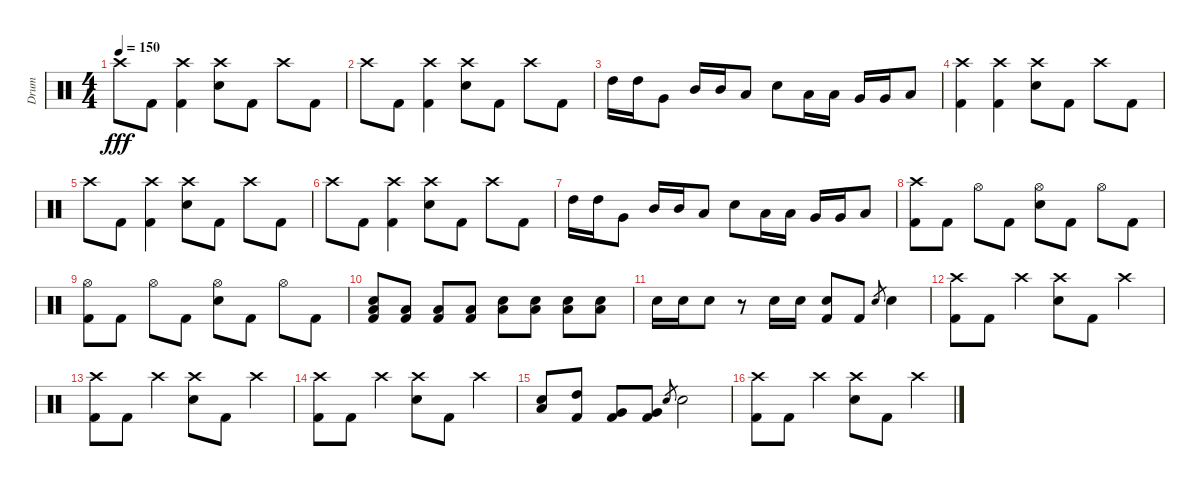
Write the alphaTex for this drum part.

\track ("Drum" "Drum") {instrument percussion}
\staff {score}
\articulation defaults
\ts (4 4)
\tempo 150
\clef neutral
\ks c "Crash high (hit)".8{dy fff} "Kick (hit) 2".8
("Crash high (hit)" "Kick (hit) 2").4 ("Crash high (hit)" "Electric Snare (hit)").8 "Kick (hit) 2".8 "Crash high (hit)".8 "Kick (hit) 2".8 |
"Crash high (hit)".8 "Kick (hit) 2".8 ("Crash high (hit)" "Kick (hit) 2").4 ("Crash high (hit)" "Electric Snare (hit)").8 "Kick (hit) 2".8 "Crash high (hit)".8 "Kick (hit) 2".8 |
"High Tom (hit)".16 "High Tom (hit)".16 "Very Low Tom (hit)".8 "Mid Tom (hit)".16 "Mid Tom (hit)".16 "Low Tom (hit)".8 "Electric Snare (hit)".8 "Low Tom (hit)".16 "Low Tom (hit)".16 "Very Low Tom (hit)".16 "Very Low Tom (hit)".16 "Low Floor Tom (hit)".8 |
("Crash high (hit)" "Kick (hit) 2").4 ("Crash high (hit)" "Kick (hit) 2").4 ("Crash high (hit)" "Electric Snare (hit)").8 "Kick (hit) 2".8 "Crash high (hit)".8 "Kick (hit) 2".8 |
"Crash high (hit)".8 "Kick (hit) 2".8 ("Crash high (hit)" "Kick (hit) 2").4 ("Crash high (hit)" "Electric Snare (hit)").8 "Kick (hit) 2".8 "Crash high (hit)".8 "Kick (hit) 2".8 |
"Crash high (hit)".8 "Kick (hit) 2".8 ("Crash high (hit)" "Kick (hit) 2").4 ("Crash high (hit)" "Electric Snare (hit)").8 "Kick (hit) 2".8 "Crash high (hit)".8 "Kick (hit) 2".8 |
"High Tom (hit)".16 "High Tom (hit)".16 "Very Low Tom (hit)".8 "Mid Tom (hit)".16 "Mid Tom (hit)".16 "Low Tom (hit)".8 "Electric Snare (hit)".8 "Low Tom (hit)".16 "Low Tom (hit)".16 "Very Low Tom (hit)".16 "Very Low Tom (hit)".16 "Low Floor Tom (hit)".8 |
("Crash high (hit)" "Kick (hit) 2").8 "Kick (hit) 2".8 "Hi-Hat (open)".8 "Kick (hit) 2".8 ("Hi-Hat (open)" "Electric Snare (hit)").8 "Kick (hit) 2".8 "Hi-Hat (open)".8 "Kick (hit) 2".8 |
("Hi-Hat (open)" "Kick (hit) 2").8 "Kick (hit) 2".8 "Hi-Hat (open)".8 "Kick (hit) 2".8 ("Hi-Hat (open)" "Electric Snare (hit)").8 "Kick (hit) 2".8 "Hi-Hat (open)".8 "Kick (hit) 2".8 |
("Electric Snare (hit)" "Low Floor Tom (hit)" "Kick (hit) 2").8 ("Low Floor Tom (hit)" "Kick (hit) 2").8 ("Low Floor Tom (hit)" "Kick (hit) 2").8 ("Low Floor Tom (hit)" "Kick (hit) 2").8 ("Electric Snare (hit)" "Low Floor Tom (hit)").8 ("Electric Snare (hit)" "Low Floor Tom (hit)").8 ("Electric Snare (hit)" "Low Floor Tom (hit)").8 ("Electric Snare (hit)" "Low Floor Tom (hit)").8 |
"Electric Snare (hit)".16 "Electric Snare (hit)".16 "Electric Snare (hit)".8 r.8 "Electric Snare (hit)".16 "Electric Snare (hit)".16 ("Electric Snare (hit)" "Kick (hit) 2").8 "Kick (hit) 2".8 "Electric Snare (hit)".8{gr} "Electric Snare (hit)".4 |
("Crash high (hit)" "Kick (hit) 2").8 "Kick (hit) 2".8 "Crash high (hit)".4 ("Crash high (hit)" "Electric Snare (hit)").8 "Kick (hit) 2".8 "Crash high (hit)".4 |
("Crash high (hit)" "Kick (hit) 2").8 "Kick (hit) 2".8 "Crash high (hit)".4 ("Crash high (hit)" "Electric Snare (hit)").8 "Kick (hit) 2".8 "Crash high (hit)".4 |
("Crash high (hit)" "Kick (hit) 2").8 "Kick (hit) 2".8 "Crash high (hit)".4 ("Crash high (hit)" "Electric Snare (hit)").8 "Kick (hit) 2".8 "Crash high (hit)".4 |
("Electric Snare (hit)" "Low Floor Tom (hit)").8 ("High Tom (hit)" "Kick (hit) 2").8 ("Very Low Tom (hit)" "Kick (hit) 2").8 ("Very Low Tom (hit)" "Kick (hit) 2").8 "Electric Snare (hit)".8{gr} "Electric Snare (hit)".2 |
("Crash high (hit)" "Kick (hit) 2").8 "Kick (hit) 2".8 "Crash high (hit)".4 ("Crash high (hit)" "Electric Snare (hit)").8 "Kick (hit) 2".8 "Crash high (hit)".4
